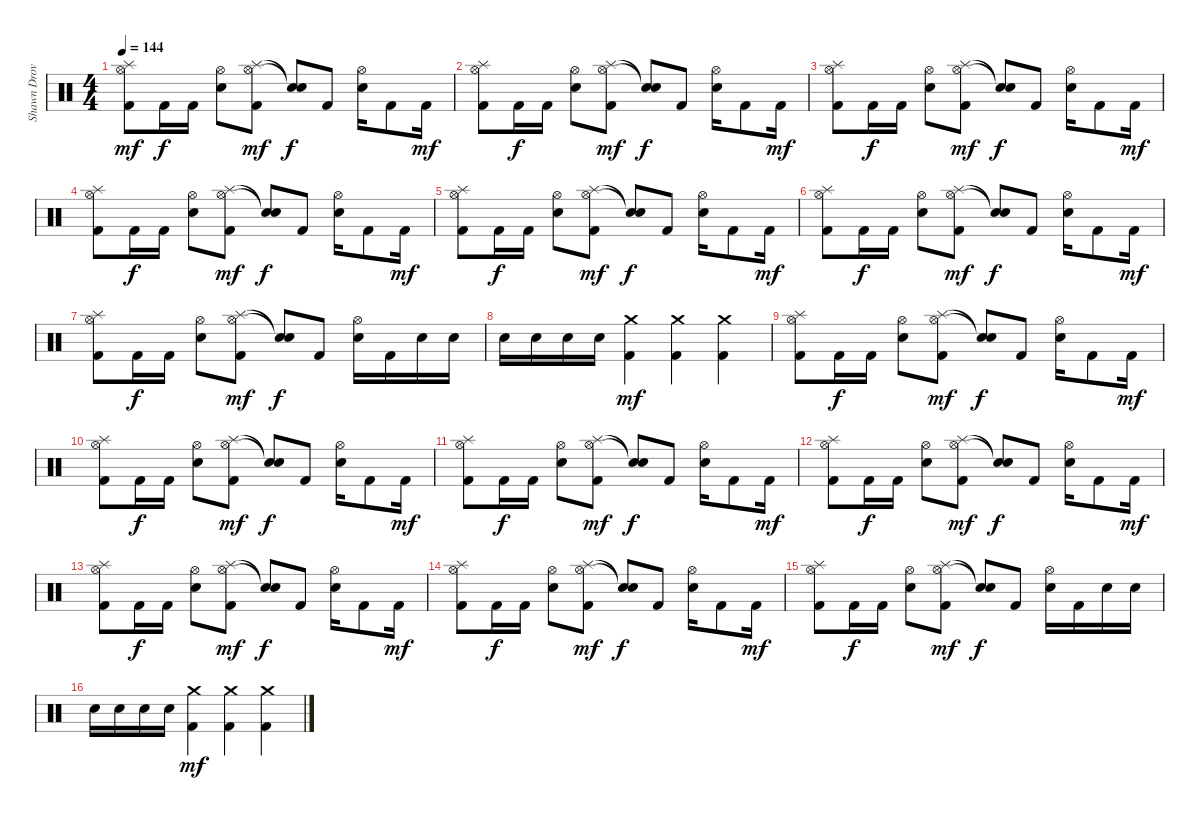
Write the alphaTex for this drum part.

\track ("Shawn Drover" "Shawn Drov") {instrument percussion}
\staff {score}
\articulation defaults
\ts (4 4)
\tempo 144
\clef neutral
\ks c
("Hi-Hat (open)" "Splash (hit)" "Kick (hit) 2").8{dy mf} "Kick (hit) 2".16{dy f} "Kick (hit) 2".16 ("Hi-Hat (open)" "Electric Snare (hit)").8 ("Hi-Hat (open)" "Splash (hit)" "Kick (hit) 2").8{dy mf} ("Snare (hit)"{t} "Snare (hit)"{t}).8{dy f} "Kick (hit) 2".8 ("Hi-Hat (open)" "Electric Snare (hit)").16 "Kick (hit) 2".8 "Kick (hit) 2".16{dy mf} |
("Hi-Hat (open)" "Splash (hit)" "Kick (hit) 2").8 "Kick (hit) 2".16{dy f} "Kick (hit) 2".16 ("Hi-Hat (open)" "Electric Snare (hit)").8 ("Hi-Hat (open)" "Splash (hit)" "Kick (hit) 2").8{dy mf} ("Snare (hit)"{t} "Snare (hit)"{t}).8{dy f} "Kick (hit) 2".8 ("Hi-Hat (open)" "Electric Snare (hit)").16 "Kick (hit) 2".8 "Kick (hit) 2".16{dy mf} |
("Hi-Hat (open)" "Splash (hit)" "Kick (hit) 2").8 "Kick (hit) 2".16{dy f} "Kick (hit) 2".16 ("Hi-Hat (open)" "Electric Snare (hit)").8 ("Hi-Hat (open)" "Splash (hit)" "Kick (hit) 2").8{dy mf} ("Snare (hit)"{t} "Snare (hit)"{t}).8{dy f} "Kick (hit) 2".8 ("Hi-Hat (open)" "Electric Snare (hit)").16 "Kick (hit) 2".8 "Kick (hit) 2".16{dy mf} |
("Hi-Hat (open)" "Splash (hit)" "Kick (hit) 2").8 "Kick (hit) 2".16{dy f} "Kick (hit) 2".16 ("Hi-Hat (open)" "Electric Snare (hit)").8 ("Hi-Hat (open)" "Splash (hit)" "Kick (hit) 2").8{dy mf} ("Snare (hit)"{t} "Snare (hit)"{t}).8{dy f} "Kick (hit) 2".8 ("Hi-Hat (open)" "Electric Snare (hit)").16 "Kick (hit) 2".8 "Kick (hit) 2".16{dy mf} |
("Hi-Hat (open)" "Splash (hit)" "Kick (hit) 2").8 "Kick (hit) 2".16{dy f} "Kick (hit) 2".16 ("Hi-Hat (open)" "Electric Snare (hit)").8 ("Hi-Hat (open)" "Splash (hit)" "Kick (hit) 2").8{dy mf} ("Snare (hit)"{t} "Snare (hit)"{t}).8{dy f} "Kick (hit) 2".8 ("Hi-Hat (open)" "Electric Snare (hit)").16 "Kick (hit) 2".8 "Kick (hit) 2".16{dy mf} |
("Hi-Hat (open)" "Splash (hit)" "Kick (hit) 2").8 "Kick (hit) 2".16{dy f} "Kick (hit) 2".16 ("Hi-Hat (open)" "Electric Snare (hit)").8 ("Hi-Hat (open)" "Splash (hit)" "Kick (hit) 2").8{dy mf} ("Snare (hit)"{t} "Snare (hit)"{t}).8{dy f} "Kick (hit) 2".8 ("Hi-Hat (open)" "Electric Snare (hit)").16 "Kick (hit) 2".8 "Kick (hit) 2".16{dy mf} |
("Hi-Hat (open)" "Splash (hit)" "Kick (hit) 2").8 "Kick (hit) 2".16{dy f} "Kick (hit) 2".16 ("Hi-Hat (open)" "Electric Snare (hit)").8 ("Hi-Hat (open)" "Splash (hit)" "Kick (hit) 2").8{dy mf} ("Snare (hit)"{t} "Snare (hit)"{t}).8{dy f} "Kick (hit) 2".8 ("Hi-Hat (open)" "Electric Snare (hit)").16 "Kick (hit) 2".16 "Electric Snare (hit)".16 "Electric Snare (hit)".16 |
"Electric Snare (hit)".16 "Electric Snare (hit)".16 "Electric Snare (hit)".16 "Electric Snare (hit)".16 ("Crash medium (hit)" "Kick (hit) 2").4{dy mf} ("Crash medium (hit)" "Kick (hit) 2").4 ("Crash medium (hit)" "Kick (hit) 2").4 |
("Hi-Hat (open)" "Splash (hit)" "Kick (hit) 2").8 "Kick (hit) 2".16{dy f} "Kick (hit) 2".16 ("Hi-Hat (open)" "Electric Snare (hit)").8 ("Hi-Hat (open)" "Splash (hit)" "Kick (hit) 2").8{dy mf} ("Snare (hit)"{t} "Snare (hit)"{t}).8{dy f} "Kick (hit) 2".8 ("Hi-Hat (open)" "Electric Snare (hit)").16 "Kick (hit) 2".8 "Kick (hit) 2".16{dy mf} |
("Hi-Hat (open)" "Splash (hit)" "Kick (hit) 2").8 "Kick (hit) 2".16{dy f} "Kick (hit) 2".16 ("Hi-Hat (open)" "Electric Snare (hit)").8 ("Hi-Hat (open)" "Splash (hit)" "Kick (hit) 2").8{dy mf} ("Snare (hit)"{t} "Snare (hit)"{t}).8{dy f} "Kick (hit) 2".8 ("Hi-Hat (open)" "Electric Snare (hit)").16 "Kick (hit) 2".8 "Kick (hit) 2".16{dy mf} |
("Hi-Hat (open)" "Splash (hit)" "Kick (hit) 2").8 "Kick (hit) 2".16{dy f} "Kick (hit) 2".16 ("Hi-Hat (open)" "Electric Snare (hit)").8 ("Hi-Hat (open)" "Splash (hit)" "Kick (hit) 2").8{dy mf} ("Snare (hit)"{t} "Snare (hit)"{t}).8{dy f} "Kick (hit) 2".8 ("Hi-Hat (open)" "Electric Snare (hit)").16 "Kick (hit) 2".8 "Kick (hit) 2".16{dy mf} |
("Hi-Hat (open)" "Splash (hit)" "Kick (hit) 2").8 "Kick (hit) 2".16{dy f} "Kick (hit) 2".16 ("Hi-Hat (open)" "Electric Snare (hit)").8 ("Hi-Hat (open)" "Splash (hit)" "Kick (hit) 2").8{dy mf} ("Snare (hit)"{t} "Snare (hit)"{t}).8{dy f} "Kick (hit) 2".8 ("Hi-Hat (open)" "Electric Snare (hit)").16 "Kick (hit) 2".8 "Kick (hit) 2".16{dy mf} |
("Hi-Hat (open)" "Splash (hit)" "Kick (hit) 2").8 "Kick (hit) 2".16{dy f} "Kick (hit) 2".16 ("Hi-Hat (open)" "Electric Snare (hit)").8 ("Hi-Hat (open)" "Splash (hit)" "Kick (hit) 2").8{dy mf} ("Snare (hit)"{t} "Snare (hit)"{t}).8{dy f} "Kick (hit) 2".8 ("Hi-Hat (open)" "Electric Snare (hit)").16 "Kick (hit) 2".8 "Kick (hit) 2".16{dy mf} |
("Hi-Hat (open)" "Splash (hit)" "Kick (hit) 2").8 "Kick (hit) 2".16{dy f} "Kick (hit) 2".16 ("Hi-Hat (open)" "Electric Snare (hit)").8 ("Hi-Hat (open)" "Splash (hit)" "Kick (hit) 2").8{dy mf} ("Snare (hit)"{t} "Snare (hit)"{t}).8{dy f} "Kick (hit) 2".8 ("Hi-Hat (open)" "Electric Snare (hit)").16 "Kick (hit) 2".8 "Kick (hit) 2".16{dy mf} |
("Hi-Hat (open)" "Splash (hit)" "Kick (hit) 2").8 "Kick (hit) 2".16{dy f} "Kick (hit) 2".16 ("Hi-Hat (open)" "Electric Snare (hit)").8 ("Hi-Hat (open)" "Splash (hit)" "Kick (hit) 2").8{dy mf} ("Snare (hit)"{t} "Snare (hit)"{t}).8{dy f} "Kick (hit) 2".8 ("Hi-Hat (open)" "Electric Snare (hit)").16 "Kick (hit) 2".16 "Electric Snare (hit)".16 "Electric Snare (hit)".16 |
"Electric Snare (hit)".16 "Electric Snare (hit)".16 "Electric Snare (hit)".16 "Electric Snare (hit)".16 ("Crash medium (hit)" "Kick (hit) 2").4{dy mf} ("Crash medium (hit)" "Kick (hit) 2").4 ("Crash medium (hit)" "Kick (hit) 2").4
